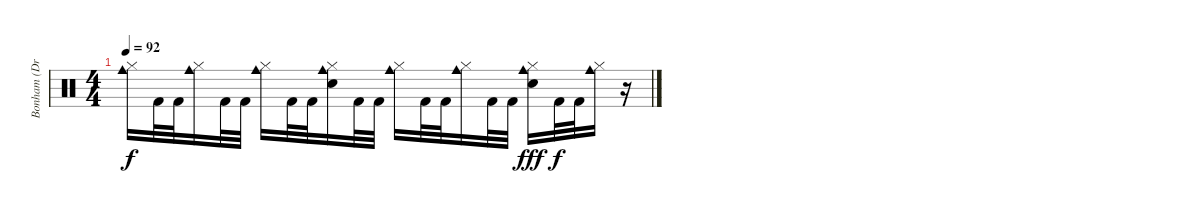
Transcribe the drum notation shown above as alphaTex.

\track ("Bonham (Drums)" "Bonham (Dr") {instrument percussion}
\staff {score}
\articulation defaults
\ts (4 4)
\tempo 92
\clef neutral
\ks c
("Cowbell medium (hit)" "Hi-Hat (closed)").16{dy f} "Kick (hit) 2".32 "Kick (hit) 2".32 ("Cowbell medium (hit)" "Hi-Hat (closed)").16 "Kick (hit) 2".32 "Kick (hit) 2".32 ("Cowbell medium (hit)" "Hi-Hat (closed)").16 "Kick (hit) 2".32 "Kick (hit) 2".32 ("Cowbell medium (hit)" "Hi-Hat (closed)" "Electric Snare (hit)").16 "Kick (hit) 2".32 "Kick (hit) 2".32 ("Cowbell medium (hit)" "Hi-Hat (closed)").16 "Kick (hit) 2".32 "Kick (hit) 2".32 ("Cowbell medium (hit)" "Hi-Hat (closed)").16 "Kick (hit) 2".32 "Kick (hit) 2".32 ("Cowbell medium (hit)" "Hi-Hat (closed)" "Electric Snare (hit)").16{dy fff} "Kick (hit) 2".32{dy f} "Kick (hit) 2".32 ("Cowbell medium (hit)" "Hi-Hat (closed)").16 r.16
